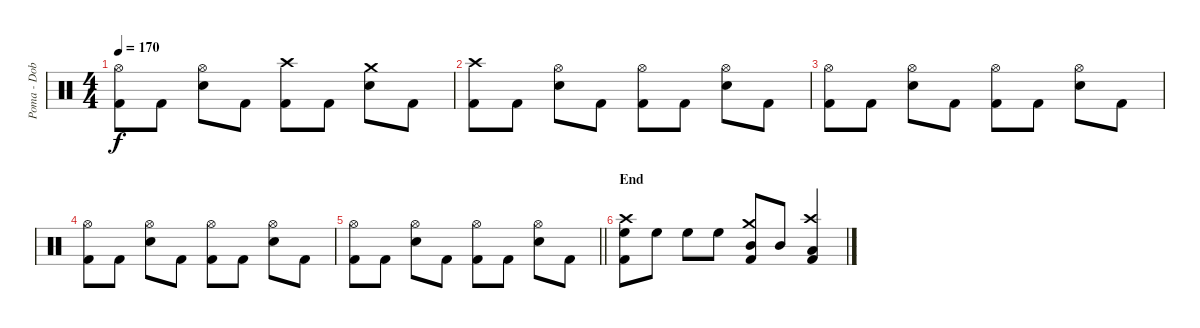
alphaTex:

\track ("Poma - Dob" "Poma - Dob") {instrument percussion}
\staff {score}
\articulation defaults
\ts (4 4)
\tempo 170
\clef neutral
\ks c
("Hi-Hat (open)" "Kick (hit) 2").8{dy f} "Kick (hit) 2".8 ("Hi-Hat (open)" "Electric Snare (hit)").8 "Kick (hit) 2".8 ("Crash high (hit)" "Kick (hit) 2").8 "Kick (hit) 2".8 ("Crash medium (hit)" "Electric Snare (hit)").8 "Kick (hit) 2".8 |
("Crash high (hit)" "Kick (hit) 2").8 "Kick (hit) 2".8 ("Hi-Hat (open)" "Electric Snare (hit)").8 "Kick (hit) 2".8 ("Hi-Hat (open)" "Kick (hit) 2").8 "Kick (hit) 2".8 ("Hi-Hat (open)" "Electric Snare (hit)").8 "Kick (hit) 2".8 |
("Hi-Hat (open)" "Kick (hit) 2").8 "Kick (hit) 2".8 ("Hi-Hat (open)" "Electric Snare (hit)").8 "Kick (hit) 2".8 ("Hi-Hat (open)" "Kick (hit) 2").8 "Kick (hit) 2".8 ("Hi-Hat (open)" "Electric Snare (hit)").8 "Kick (hit) 2".8 |
("Hi-Hat (open)" "Kick (hit) 2").8 "Kick (hit) 2".8 ("Hi-Hat (open)" "Electric Snare (hit)").8 "Kick (hit) 2".8 ("Hi-Hat (open)" "Kick (hit) 2").8 "Kick (hit) 2".8 ("Hi-Hat (open)" "Electric Snare (hit)").8 "Kick (hit) 2".8 |
\barLineRight lightlight
("Hi-Hat (open)" "Kick (hit) 2").8 "Kick (hit) 2".8 ("Hi-Hat (open)" "Electric Snare (hit)").8 "Kick (hit) 2".8 ("Hi-Hat (open)" "Kick (hit) 2").8 "Kick (hit) 2".8 ("Hi-Hat (open)" "Electric Snare (hit)").8 "Kick (hit) 2".8 |
\section ("" "End")
("Crash high (hit)" "High Floor Tom (hit)" "Kick (hit) 2").8 "High Floor Tom (hit)".8 "High Floor Tom (hit)".8 "High Floor Tom (hit)".8 ("Crash medium (hit)" "Mid Tom (hit)" "Kick (hit) 2").8 "Mid Tom (hit)".8 ("Crash high (hit)" "Low Tom (hit)" "Kick (hit) 2").4
